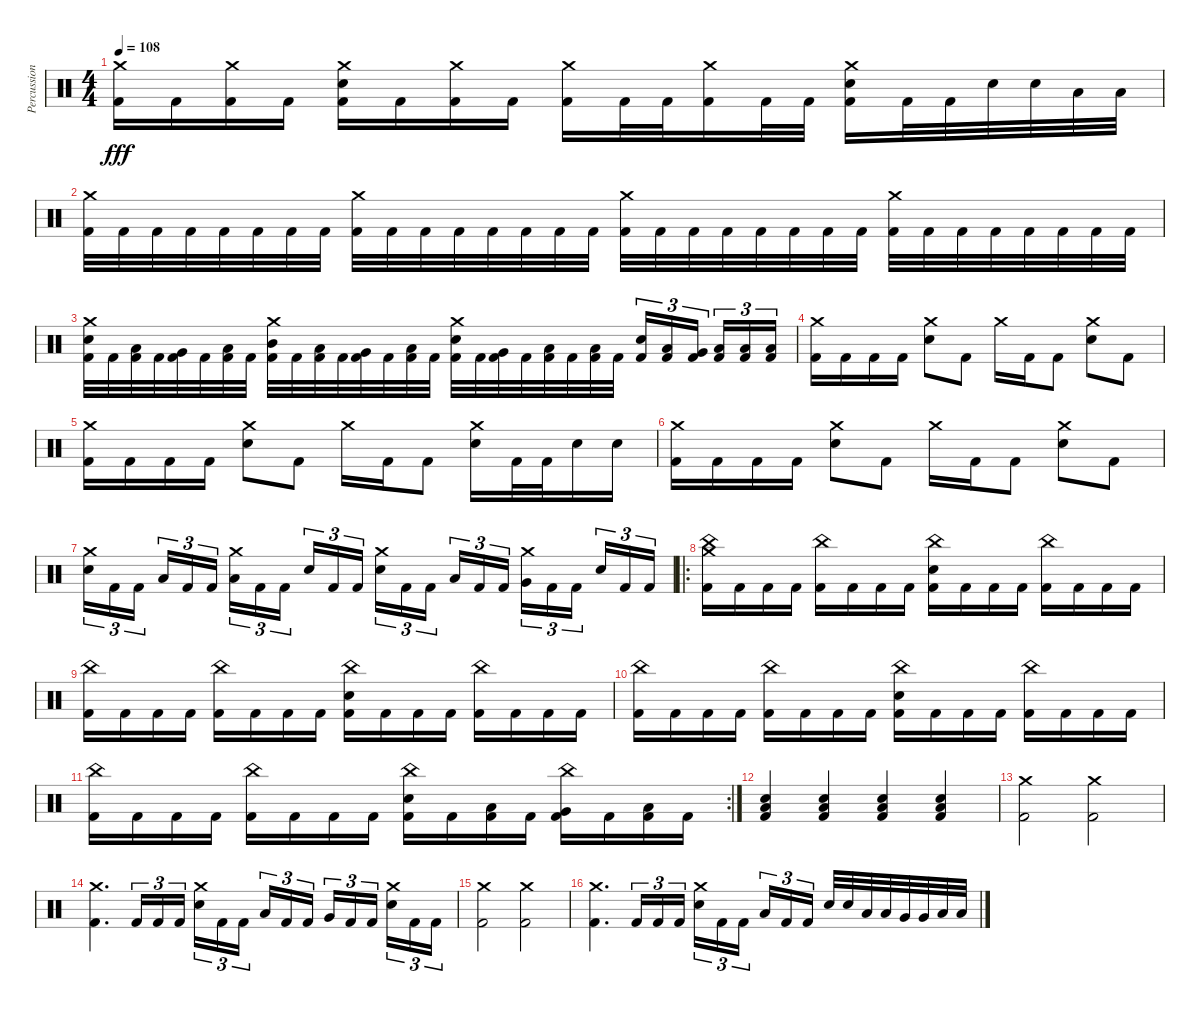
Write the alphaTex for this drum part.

\track ("Percussion" "Percussion") {instrument percussion}
\staff {score}
\articulation defaults
\ts (4 4)
\tempo 108
\clef neutral
\ks c
("Crash medium (hit)" "Kick (hit) 2").16{dy fff} "Kick (hit) 2".16 ("Crash medium (hit)" "Kick (hit) 2").16 "Kick (hit) 2".16 ("Crash medium (hit)" "Electric Snare (hit)" "Kick (hit) 2").16 "Kick (hit) 2".16 ("Crash medium (hit)" "Kick (hit) 2").16 "Kick (hit) 2".16 ("Crash medium (hit)" "Kick (hit) 2").16 "Kick (hit) 2".32 "Kick (hit) 2".32 ("Crash medium (hit)" "Kick (hit) 2").16 "Kick (hit) 2".32 "Kick (hit) 2".32 ("Crash medium (hit)" "Electric Snare (hit)" "Kick (hit) 2").16 "Kick (hit) 2".32 "Kick (hit) 2".32 "Electric Snare (hit)".32 "Electric Snare (hit)".32 "Low Floor Tom (hit)".32 "Low Floor Tom (hit)".32 |
("Crash medium (hit)" "Kick (hit) 2").32 "Kick (hit) 2".32 "Kick (hit) 2".32 "Kick (hit) 2".32 "Kick (hit) 2".32 "Kick (hit) 2".32 "Kick (hit) 2".32 "Kick (hit) 2".32 ("Crash medium (hit)" "Kick (hit) 2").32 "Kick (hit) 2".32 "Kick (hit) 2".32 "Kick (hit) 2".32 "Kick (hit) 2".32 "Kick (hit) 2".32 "Kick (hit) 2".32 "Kick (hit) 2".32 ("Crash medium (hit)" "Kick (hit) 2").32 "Kick (hit) 2".32 "Kick (hit) 2".32 "Kick (hit) 2".32 "Kick (hit) 2".32 "Kick (hit) 2".32 "Kick (hit) 2".32 "Kick (hit) 2".32 ("Crash medium (hit)" "Kick (hit) 2").32 "Kick (hit) 2".32 "Kick (hit) 2".32 "Kick (hit) 2".32 "Kick (hit) 2".32 "Kick (hit) 2".32 "Kick (hit) 2".32 "Kick (hit) 2".32 |
("Crash medium (hit)" "Electric Snare (hit)" "Kick (hit) 2").32 "Kick (hit) 2".32 ("Low Tom (hit)" "Kick (hit) 2").32 "Kick (hit) 2".32 ("Very Low Tom (hit)" "Kick (hit) 2").32 "Kick (hit) 2".32 ("Low Floor Tom (hit)" "Kick (hit) 2").32 "Kick (hit) 2".32 ("Crash medium (hit)" "Mid Tom (hit)" "Kick (hit) 2").32 "Kick (hit) 2".32 ("Low Tom (hit)" "Kick (hit) 2").32 "Kick (hit) 2".32 ("Very Low Tom (hit)" "Kick (hit) 2").32 "Kick (hit) 2".32 ("Low Floor Tom (hit)" "Kick (hit) 2").32 "Kick (hit) 2".32 ("Crash medium (hit)" "Electric Snare (hit)" "Kick (hit) 2").32 "Kick (hit) 2".32 ("Very Low Tom (hit)" "Kick (hit) 2").32 "Kick (hit) 2".32 ("Low Tom (hit)" "Kick (hit) 2").32 "Kick (hit) 2".32 ("Low Floor Tom (hit)" "Kick (hit) 2").32 "Kick (hit) 2".32 ("Electric Snare (hit)" "Kick (hit) 2").16{tu (3 2)} ("Low Tom (hit)" "Kick (hit) 2").16{tu (3 2)} ("Very Low Tom (hit)" "Kick (hit) 2").16{tu (3 2) beam splitsecondary} ("Low Floor Tom (hit)" "Kick (hit) 2").16{tu (3 2)} ("Low Floor Tom (hit)" "Kick (hit) 2").16{tu (3 2)} ("Low Floor Tom (hit)" "Kick (hit) 2").16{tu (3 2)} |
("Crash medium (hit)" "Kick (hit) 2").16 "Kick (hit) 2".16 "Kick (hit) 2".16 "Kick (hit) 2".16 ("Crash medium (hit)" "Electric Snare (hit)").8 "Kick (hit) 2".8 "Crash medium (hit)".16 "Kick (hit) 2".16 "Kick (hit) 2".8 ("Crash medium (hit)" "Electric Snare (hit)").8 "Kick (hit) 2".8 |
("Crash medium (hit)" "Kick (hit) 2").16 "Kick (hit) 2".16 "Kick (hit) 2".16 "Kick (hit) 2".16 ("Crash medium (hit)" "Electric Snare (hit)").8 "Kick (hit) 2".8 "Crash medium (hit)".16 "Kick (hit) 2".16 "Kick (hit) 2".8 ("Crash medium (hit)" "Electric Snare (hit)").16 "Kick (hit) 2".32 "Kick (hit) 2".32 "Electric Snare (hit)".16 "Electric Snare (hit)".16 |
("Crash medium (hit)" "Kick (hit) 2").16 "Kick (hit) 2".16 "Kick (hit) 2".16 "Kick (hit) 2".16 ("Crash medium (hit)" "Electric Snare (hit)").8 "Kick (hit) 2".8 "Crash medium (hit)".16 "Kick (hit) 2".16 "Kick (hit) 2".8 ("Crash medium (hit)" "Electric Snare (hit)").8 "Kick (hit) 2".8 |
("Crash medium (hit)" "Electric Snare (hit)").16{tu (3 2)} "Kick (hit) 2".16{tu (3 2)} "Kick (hit) 2".16{tu (3 2) beam splitsecondary} "Low Tom (hit)".16{tu (3 2)} "Kick (hit) 2".16{tu (3 2)} "Kick (hit) 2".16{tu (3 2)} ("Crash medium (hit)" "Low Floor Tom (hit)").16{tu (3 2)} "Kick (hit) 2".16{tu (3 2)} "Kick (hit) 2".16{tu (3 2) beam splitsecondary} "Electric Snare (hit)".16{tu (3 2)} "Kick (hit) 2".16{tu (3 2)} "Kick (hit) 2".16{tu (3 2)} ("Crash medium (hit)" "Electric Snare (hit)").16{tu (3 2)} "Kick (hit) 2".16{tu (3 2)} "Kick (hit) 2".16{tu (3 2) beam splitsecondary} "Low Tom (hit)".16{tu (3 2)} "Kick (hit) 2".16{tu (3 2)} "Kick (hit) 2".16{tu (3 2)} ("Crash medium (hit)" "Very Low Tom (hit)").16{tu (3 2)} "Kick (hit) 2".16{tu (3 2)} "Kick (hit) 2".16{tu (3 2) beam splitsecondary} "Electric Snare (hit)".16{tu (3 2)} "Kick (hit) 2".16{tu (3 2)} "Kick (hit) 2".16{tu (3 2)} |
\ro
("Crash medium (hit)" "China (hit)" "Kick (hit) 2").16 "Kick (hit) 2".16 "Kick (hit) 2".16 "Kick (hit) 2".16 ("China (hit)" "Kick (hit) 2").16 "Kick (hit) 2".16 "Kick (hit) 2".16 "Kick (hit) 2".16 ("China (hit)" "Electric Snare (hit)" "Kick (hit) 2").16 "Kick (hit) 2".16 "Kick (hit) 2".16 "Kick (hit) 2".16 ("China (hit)" "Kick (hit) 2").16 "Kick (hit) 2".16 "Kick (hit) 2".16 "Kick (hit) 2".16 |
("China (hit)" "Kick (hit) 2").16 "Kick (hit) 2".16 "Kick (hit) 2".16 "Kick (hit) 2".16 ("China (hit)" "Kick (hit) 2").16 "Kick (hit) 2".16 "Kick (hit) 2".16 "Kick (hit) 2".16 ("China (hit)" "Electric Snare (hit)" "Kick (hit) 2").16 "Kick (hit) 2".16 "Kick (hit) 2".16 "Kick (hit) 2".16 ("China (hit)" "Kick (hit) 2").16 "Kick (hit) 2".16 "Kick (hit) 2".16 "Kick (hit) 2".16 |
("China (hit)" "Kick (hit) 2").16 "Kick (hit) 2".16 "Kick (hit) 2".16 "Kick (hit) 2".16 ("China (hit)" "Kick (hit) 2").16 "Kick (hit) 2".16 "Kick (hit) 2".16 "Kick (hit) 2".16 ("China (hit)" "Electric Snare (hit)" "Kick (hit) 2").16 "Kick (hit) 2".16 "Kick (hit) 2".16 "Kick (hit) 2".16 ("China (hit)" "Kick (hit) 2").16 "Kick (hit) 2".16 "Kick (hit) 2".16 "Kick (hit) 2".16 |
\rc 2
("China (hit)" "Kick (hit) 2").16 "Kick (hit) 2".16 "Kick (hit) 2".16 "Kick (hit) 2".16 ("China (hit)" "Kick (hit) 2").16 "Kick (hit) 2".16 "Kick (hit) 2".16 "Kick (hit) 2".16 ("China (hit)" "Electric Snare (hit)" "Kick (hit) 2").16 "Kick (hit) 2".16 ("Low Tom (hit)" "Kick (hit) 2").16 "Kick (hit) 2".16 ("China (hit)" "Very Low Tom (hit)" "Kick (hit) 2").16 "Kick (hit) 2".16 ("Low Floor Tom (hit)" "Kick (hit) 2").16 "Kick (hit) 2".16 |
("Low Floor Tom (hit)" "Electric Snare (hit)" "Kick (hit) 2").4 ("Low Floor Tom (hit)" "Electric Snare (hit)" "Kick (hit) 2").4 ("Low Floor Tom (hit)" "Electric Snare (hit)" "Kick (hit) 2").4 ("Low Floor Tom (hit)" "Electric Snare (hit)" "Kick (hit) 2").4 |
("Crash medium (hit)" "Kick (hit) 2").2 ("Crash medium (hit)" "Kick (hit) 2").2 |
("Crash medium (hit)" "Kick (hit) 2").4{d} "Kick (hit) 2".16{tu (3 2)} "Kick (hit) 2".16{tu (3 2)} "Kick (hit) 2".16{tu (3 2)} ("Crash medium (hit)" "Electric Snare (hit)").16{tu (3 2)} "Kick (hit) 2".16{tu (3 2)} "Kick (hit) 2".16{tu (3 2) beam splitsecondary} "Low Tom (hit)".16{tu (3 2)} "Kick (hit) 2".16{tu (3 2)} "Kick (hit) 2".16{tu (3 2)} "Very Low Tom (hit)".16{tu (3 2)} "Kick (hit) 2".16{tu (3 2)} "Kick (hit) 2".16{tu (3 2) beam splitsecondary} ("Crash medium (hit)" "Electric Snare (hit)").16{tu (3 2)} "Kick (hit) 2".16{tu (3 2)} "Kick (hit) 2".16{tu (3 2)} |
("Crash medium (hit)" "Kick (hit) 2").2 ("Crash medium (hit)" "Kick (hit) 2").2 |
("Crash medium (hit)" "Kick (hit) 2").4{d} "Kick (hit) 2".16{tu (3 2)} "Kick (hit) 2".16{tu (3 2)} "Kick (hit) 2".16{tu (3 2)} ("Crash medium (hit)" "Electric Snare (hit)").16{tu (3 2)} "Kick (hit) 2".16{tu (3 2)} "Kick (hit) 2".16{tu (3 2) beam splitsecondary} "Low Tom (hit)".16{tu (3 2)} "Kick (hit) 2".16{tu (3 2)} "Kick (hit) 2".16{tu (3 2)} "Electric Snare (hit)".32 "Electric Snare (hit)".32 "Low Tom (hit)".32 "Low Tom (hit)".32 "Very Low Tom (hit)".32 "Very Low Tom (hit)".32 "Low Floor Tom (hit)".32 "Low Floor Tom (hit)".32
